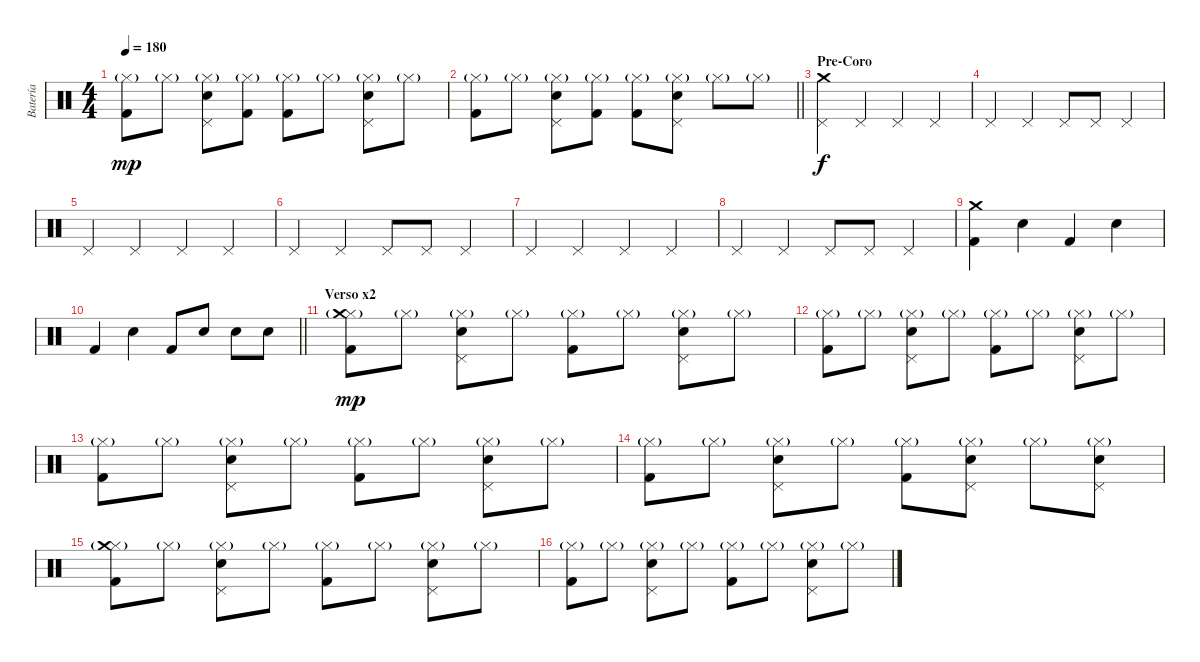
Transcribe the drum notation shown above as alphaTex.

\track ("Batería" "Batería") {instrument percussion}
\staff {score}
\articulation defaults
\ts (4 4)
\tempo 180
\clef neutral
\ks c
("Hi-Hat (closed)"{g} "Kick (hit) 2").8{dy mp} "Hi-Hat (closed)"{g}.8 ("Hi-Hat (closed)"{g} "Electric Snare (hit)" "Pedal Hi-Hat (hit)").8 ("Hi-Hat (closed)"{g} "Kick (hit) 2").8 ("Hi-Hat (closed)"{g} "Kick (hit) 2").8 "Hi-Hat (closed)"{g}.8 ("Hi-Hat (closed)"{g} "Electric Snare (hit)" "Pedal Hi-Hat (hit)").8 "Hi-Hat (closed)"{g}.8 |
\barLineRight lightlight
("Hi-Hat (closed)"{g} "Kick (hit) 2").8 "Hi-Hat (closed)"{g}.8 ("Hi-Hat (closed)"{g} "Electric Snare (hit)" "Pedal Hi-Hat (hit)").8 ("Hi-Hat (closed)"{g} "Kick (hit) 2").8 ("Hi-Hat (closed)"{g} "Kick (hit) 2").8 ("Hi-Hat (closed)"{g} "Electric Snare (hit)" "Pedal Hi-Hat (hit)").8 "Hi-Hat (closed)"{g}.8 "Hi-Hat (closed)"{g}.8 |
\section ("" "Pre-Coro")
("Pedal Hi-Hat (hit)" "Crash medium (hit)").4{dy f} "Pedal Hi-Hat (hit)".4 "Pedal Hi-Hat (hit)".4 "Pedal Hi-Hat (hit)".4 |
"Pedal Hi-Hat (hit)".4 "Pedal Hi-Hat (hit)".4 "Pedal Hi-Hat (hit)".8 "Pedal Hi-Hat (hit)".8 "Pedal Hi-Hat (hit)".4 |
"Pedal Hi-Hat (hit)".4 "Pedal Hi-Hat (hit)".4 "Pedal Hi-Hat (hit)".4 "Pedal Hi-Hat (hit)".4 |
"Pedal Hi-Hat (hit)".4 "Pedal Hi-Hat (hit)".4 "Pedal Hi-Hat (hit)".8 "Pedal Hi-Hat (hit)".8 "Pedal Hi-Hat (hit)".4 |
"Pedal Hi-Hat (hit)".4 "Pedal Hi-Hat (hit)".4 "Pedal Hi-Hat (hit)".4 "Pedal Hi-Hat (hit)".4 |
"Pedal Hi-Hat (hit)".4 "Pedal Hi-Hat (hit)".4 "Pedal Hi-Hat (hit)".8 "Pedal Hi-Hat (hit)".8 "Pedal Hi-Hat (hit)".4 |
("Kick (hit) 2" "Crash medium (hit)").4 "Electric Snare (hit)".4 "Kick (hit) 2".4 "Electric Snare (hit)".4 |
\barLineRight lightlight "Kick (hit) 2".4 "Electric Snare (hit)".4 "Kick (hit) 2".8 "Electric Snare (hit)".8 "Electric Snare (hit)".8 "Electric Snare (hit)".8
|
\section ("" "Verso x2")
("Hi-Hat (closed)"{g} "Kick (hit) 2" "Crash medium (hit)").8{dy mp} "Hi-Hat (closed)"{g}.8 ("Hi-Hat (closed)"{g} "Electric Snare (hit)" "Pedal Hi-Hat (hit)").8 "Hi-Hat (closed)"{g}.8 ("Hi-Hat (closed)"{g} "Kick (hit) 2").8 "Hi-Hat (closed)"{g}.8 ("Hi-Hat (closed)"{g} "Electric Snare (hit)" "Pedal Hi-Hat (hit)").8 "Hi-Hat (closed)"{g}.8 |
("Hi-Hat (closed)"{g} "Kick (hit) 2").8 "Hi-Hat (closed)"{g}.8 ("Hi-Hat (closed)"{g} "Electric Snare (hit)" "Pedal Hi-Hat (hit)").8 "Hi-Hat (closed)"{g}.8 ("Hi-Hat (closed)"{g} "Kick (hit) 2").8 "Hi-Hat (closed)"{g}.8 ("Hi-Hat (closed)"{g} "Electric Snare (hit)" "Pedal Hi-Hat (hit)").8 "Hi-Hat (closed)"{g}.8 |
("Hi-Hat (closed)"{g} "Kick (hit) 2").8 "Hi-Hat (closed)"{g}.8 ("Hi-Hat (closed)"{g} "Electric Snare (hit)" "Pedal Hi-Hat (hit)").8 "Hi-Hat (closed)"{g}.8 ("Hi-Hat (closed)"{g} "Kick (hit) 2").8 "Hi-Hat (closed)"{g}.8 ("Hi-Hat (closed)"{g} "Electric Snare (hit)" "Pedal Hi-Hat (hit)").8 "Hi-Hat (closed)"{g}.8 |
("Hi-Hat (closed)"{g} "Kick (hit) 2").8 "Hi-Hat (closed)"{g}.8 ("Hi-Hat (closed)"{g} "Electric Snare (hit)" "Pedal Hi-Hat (hit)").8 "Hi-Hat (closed)"{g}.8 ("Hi-Hat (closed)"{g} "Kick (hit) 2").8 ("Hi-Hat (closed)"{g} "Electric Snare (hit)" "Pedal Hi-Hat (hit)").8 "Hi-Hat (closed)"{g}.8 ("Hi-Hat (closed)"{g} "Electric Snare (hit)" "Pedal Hi-Hat (hit)").8 |
("Hi-Hat (closed)"{g} "Kick (hit) 2" "Crash medium (hit)").8 "Hi-Hat (closed)"{g}.8 ("Hi-Hat (closed)"{g} "Electric Snare (hit)" "Pedal Hi-Hat (hit)").8 "Hi-Hat (closed)"{g}.8 ("Hi-Hat (closed)"{g} "Kick (hit) 2").8 "Hi-Hat (closed)"{g}.8 ("Hi-Hat (closed)"{g} "Electric Snare (hit)" "Pedal Hi-Hat (hit)").8 "Hi-Hat (closed)"{g}.8 |
("Hi-Hat (closed)"{g} "Kick (hit) 2").8 "Hi-Hat (closed)"{g}.8 ("Hi-Hat (closed)"{g} "Electric Snare (hit)" "Pedal Hi-Hat (hit)").8 "Hi-Hat (closed)"{g}.8 ("Hi-Hat (closed)"{g} "Kick (hit) 2").8 "Hi-Hat (closed)"{g}.8 ("Hi-Hat (closed)"{g} "Electric Snare (hit)" "Pedal Hi-Hat (hit)").8 "Hi-Hat (closed)"{g}.8
